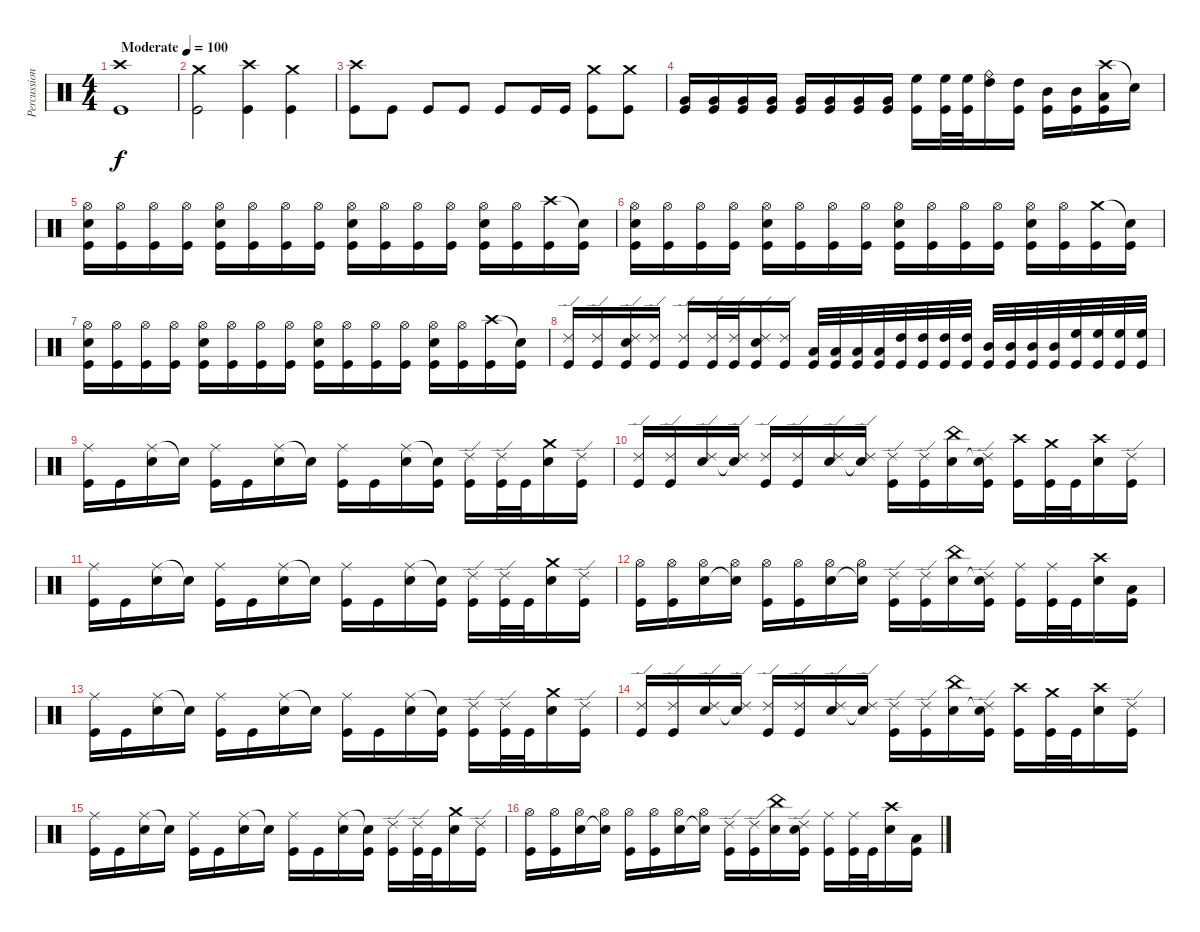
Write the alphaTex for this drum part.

\track ("Percussion" "Percussion") {instrument percussion}
\staff {score}
\articulation defaults
\ts (4 4)
\tempo (100 "Moderate")
\clef neutral
\ks c
("Crash high (hit)" "Kick (hit)").1{dy f} |
("Crash medium (hit)" "Kick (hit)").2 ("Crash high (hit)" "Kick (hit)").4 ("Crash medium (hit)" "Kick (hit)").4 |
("Crash high (hit)" "Kick (hit)").8 "Kick (hit)".8 "Kick (hit)".8 "Kick (hit)".8 "Kick (hit)".8 "Kick (hit)".16 "Kick (hit)".16 ("Crash medium (hit)" "Kick (hit)").8 ("Crash medium (hit)" "Kick (hit)").8 |
("Very Low Tom (hit)" "Kick (hit)").16 ("Very Low Tom (hit)" "Kick (hit)").16 ("Very Low Tom (hit)" "Kick (hit)").16 ("Very Low Tom (hit)" "Kick (hit)").16 ("Very Low Tom (hit)" "Kick (hit)").16 ("Very Low Tom (hit)" "Kick (hit)").16 ("Very Low Tom (hit)" "Kick (hit)").16 ("Very Low Tom (hit)" "Kick (hit)").16 ("High Floor Tom (hit)" "Kick (hit)").16 ("High Floor Tom (hit)" "Kick (hit)").32 ("High Floor Tom (hit)" "Kick (hit)").32 ("High Tom (hit)" "Ride (bell)").16 ("High Tom (hit)" "Kick (hit)").16 ("Mid Tom (hit)" "Kick (hit)").16 ("Mid Tom (hit)" "Kick (hit)").16 ("Crash high (hit)" "Low Floor Tom (hit)" "Kick (hit)").16 "Snare (hit)"{t}.16 |
("Hi-Hat (open)" "Snare (hit) 2" "Kick (hit)").16 ("Hi-Hat (open)" "Kick (hit)").16 ("Hi-Hat (open)" "Kick (hit)").16 ("Hi-Hat (open)" "Kick (hit)").16 ("Hi-Hat (open)" "Snare (hit) 2" "Kick (hit)").16 ("Hi-Hat (open)" "Kick (hit)").16 ("Hi-Hat (open)" "Kick (hit)").16 ("Hi-Hat (open)" "Kick (hit)").16 ("Hi-Hat (open)" "Snare (hit) 2" "Kick (hit)").16 ("Hi-Hat (open)" "Kick (hit)").16 ("Hi-Hat (open)" "Kick (hit)").16 ("Hi-Hat (open)" "Kick (hit)").16 ("Hi-Hat (open)" "Snare (hit) 2" "Kick (hit)").16 ("Hi-Hat (open)" "Kick (hit)").16 ("Crash high (hit)" "Kick (hit)").16 ("Snare (hit)"{t} "Kick (hit)").16 |
("Hi-Hat (open)" "Snare (hit) 2" "Kick (hit)").16 ("Hi-Hat (open)" "Kick (hit)").16 ("Hi-Hat (open)" "Kick (hit)").16 ("Hi-Hat (open)" "Kick (hit)").16 ("Hi-Hat (open)" "Snare (hit) 2" "Kick (hit)").16 ("Hi-Hat (open)" "Kick (hit)").16 ("Hi-Hat (open)" "Kick (hit)").16 ("Hi-Hat (open)" "Kick (hit)").16 ("Hi-Hat (open)" "Snare (hit) 2" "Kick (hit)").16 ("Hi-Hat (open)" "Kick (hit)").16 ("Hi-Hat (open)" "Kick (hit)").16 ("Hi-Hat (open)" "Kick (hit)").16 ("Hi-Hat (open)" "Snare (hit) 2" "Kick (hit)").16 ("Hi-Hat (open)" "Kick (hit)").16 ("Crash medium (hit)" "Kick (hit)").16 ("Snare (hit)"{t} "Kick (hit)").16 |
("Hi-Hat (open)" "Snare (hit) 2" "Kick (hit)").16 ("Hi-Hat (open)" "Kick (hit)").16 ("Hi-Hat (open)" "Kick (hit)").16 ("Hi-Hat (open)" "Kick (hit)").16 ("Hi-Hat (open)" "Snare (hit) 2" "Kick (hit)").16 ("Hi-Hat (open)" "Kick (hit)").16 ("Hi-Hat (open)" "Kick (hit)").16 ("Hi-Hat (open)" "Kick (hit)").16 ("Hi-Hat (open)" "Snare (hit) 2" "Kick (hit)").16 ("Hi-Hat (open)" "Kick (hit)").16 ("Hi-Hat (open)" "Kick (hit)").16 ("Hi-Hat (open)" "Kick (hit)").16 ("Hi-Hat (open)" "Snare (hit) 2" "Kick (hit)").16 ("Hi-Hat (open)" "Kick (hit)").16 ("Crash high (hit)" "Kick (hit)").16 ("Snare (hit)"{t} "Kick (hit)").16 |
("Ride (edge) 2" "Kick (hit)").16 ("Ride (edge) 2" "Kick (hit)").16 ("Ride (edge) 2" "Snare (hit) 2" "Kick (hit)").16 ("Ride (edge) 2" "Kick (hit)").16 ("Ride (edge) 2" "Kick (hit)").16 ("Ride (edge) 2" "Kick (hit)").32 ("Ride (edge) 2" "Kick (hit)").32 ("Ride (edge) 2" "Snare (hit) 2" "Kick (hit)").16 ("Ride (edge) 2" "Kick (hit)").16 ("Low Tom (hit)" "Kick (hit)").32 ("Low Tom (hit)" "Kick (hit)").32 ("Low Tom (hit)" "Kick (hit)").32 ("Low Tom (hit)" "Kick (hit)").32 ("High Tom (hit)" "Kick (hit)").32 ("High Tom (hit)" "Kick (hit)").32 ("High Tom (hit)" "Kick (hit)").32 ("High Tom (hit)" "Kick (hit)").32 ("Mid Tom (hit)" "Kick (hit)").32 ("Mid Tom (hit)" "Kick (hit)").32 ("Mid Tom (hit)" "Kick (hit)").32 ("Mid Tom (hit)" "Kick (hit)").32 ("High Floor Tom (hit)" "Kick (hit)").32 ("High Floor Tom (hit)" "Kick (hit)").32 ("High Floor Tom (hit)" "Kick (hit)").32 ("High Floor Tom (hit)" "Kick (hit)").32 |
("Ride (middle)" "Kick (hit)").16 "Kick (hit)".16 ("Ride (middle)" "Snare (hit) 2").16 "Snare (hit)"{t}.16 ("Ride (middle)" "Kick (hit)").16 "Kick (hit)".16 ("Ride (middle)" "Snare (hit) 2").16 "Snare (hit)"{t}.16 ("Ride (middle)" "Kick (hit)").16 "Kick (hit)".16 ("Ride (middle)" "Snare (hit) 2").16 ("Snare (hit)"{t} "Kick (hit)").16 ("Ride (edge) 2" "Kick (hit)").16 ("Ride (edge) 2" "Kick (hit)").32 "Kick (hit)".32 ("Crash medium (hit)" "Snare (hit) 2").16 ("Ride (edge) 2" "Kick (hit)").16 |
("Ride (edge) 2" "Kick (hit)").16 ("Ride (edge) 2" "Kick (hit)").16 ("Ride (edge) 2" "Snare (hit) 2").16 ("Ride (edge) 2" "Snare (hit)"{t}).16 ("Ride (edge) 2" "Kick (hit)").16 ("Ride (edge) 2" "Kick (hit)").16 ("Ride (edge) 2" "Snare (hit) 2").16 ("Ride (edge) 2" "Snare (hit)"{t}).16 ("Ride (edge) 2" "Kick (hit)").16 ("Ride (edge) 2" "Kick (hit)").16 ("China (hit)" "Snare (hit) 2").16 ("Ride (edge) 2" "Snare (hit)"{t} "Kick (hit)").16 ("Crash high (hit)" "Kick (hit)").16 ("Crash medium (hit)" "Kick (hit)").32 "Kick (hit)".32 ("Crash high (hit)" "Snare (hit) 2").16 ("Ride (edge) 2" "Kick (hit)").16 |
("Ride (middle)" "Kick (hit)").16 "Kick (hit)".16 ("Ride (middle)" "Snare (hit) 2").16 "Snare (hit)"{t}.16 ("Ride (middle)" "Kick (hit)").16 "Kick (hit)".16 ("Ride (middle)" "Snare (hit) 2").16 "Snare (hit)"{t}.16 ("Ride (middle)" "Kick (hit)").16 "Kick (hit)".16 ("Ride (middle)" "Snare (hit) 2").16 ("Snare (hit)"{t} "Kick (hit)").16 ("Ride (edge) 2" "Kick (hit)").16 ("Ride (edge) 2" "Kick (hit)").32 "Kick (hit)".32 ("Crash medium (hit)" "Snare (hit) 2").16 ("Ride (edge) 2" "Kick (hit)").16 |
("Hi-Hat (open)" "Kick (hit)").16 ("Hi-Hat (open)" "Kick (hit)").16 ("Hi-Hat (open)" "Snare (hit) 2").16 ("Hi-Hat (open)" "Snare (hit)"{t}).16 ("Hi-Hat (open)" "Kick (hit)").16 ("Hi-Hat (open)" "Kick (hit)").16 ("Hi-Hat (open)" "Snare (hit) 2").16 ("Hi-Hat (open)" "Snare (hit)"{t}).16 ("Ride (edge) 2" "Kick (hit)").16 ("Ride (edge) 2" "Kick (hit)").16 ("China (hit)" "Snare (hit) 2").16 ("Ride (edge) 2" "Snare (hit)"{t} "Kick (hit)").16 ("Ride (middle)" "Kick (hit)").16 ("Ride (middle)" "Kick (hit)").32 "Kick (hit)".32 ("Crash high (hit)" "Snare (hit) 2").16 ("Low Floor Tom (hit)" "Kick (hit)").16 |
("Ride (middle)" "Kick (hit)").16 "Kick (hit)".16 ("Ride (middle)" "Snare (hit) 2").16 "Snare (hit)"{t}.16 ("Ride (middle)" "Kick (hit)").16 "Kick (hit)".16 ("Ride (middle)" "Snare (hit) 2").16 "Snare (hit)"{t}.16 ("Ride (middle)" "Kick (hit)").16 "Kick (hit)".16 ("Ride (middle)" "Snare (hit) 2").16 ("Snare (hit)"{t} "Kick (hit)").16 ("Ride (edge) 2" "Kick (hit)").16 ("Ride (edge) 2" "Kick (hit)").32 "Kick (hit)".32 ("Crash medium (hit)" "Snare (hit) 2").16 ("Ride (edge) 2" "Kick (hit)").16 |
("Ride (edge) 2" "Kick (hit)").16 ("Ride (edge) 2" "Kick (hit)").16 ("Ride (edge) 2" "Snare (hit) 2").16 ("Ride (edge) 2" "Snare (hit)"{t}).16 ("Ride (edge) 2" "Kick (hit)").16 ("Ride (edge) 2" "Kick (hit)").16 ("Ride (edge) 2" "Snare (hit) 2").16 ("Ride (edge) 2" "Snare (hit)"{t}).16 ("Ride (edge) 2" "Kick (hit)").16 ("Ride (edge) 2" "Kick (hit)").16 ("China (hit)" "Snare (hit) 2").16 ("Ride (edge) 2" "Snare (hit)"{t} "Kick (hit)").16 ("Crash high (hit)" "Kick (hit)").16 ("Crash medium (hit)" "Kick (hit)").32 "Kick (hit)".32 ("Crash high (hit)" "Snare (hit) 2").16 ("Ride (edge) 2" "Kick (hit)").16 |
("Ride (middle)" "Kick (hit)").16 "Kick (hit)".16 ("Ride (middle)" "Snare (hit) 2").16 "Snare (hit)"{t}.16 ("Ride (middle)" "Kick (hit)").16 "Kick (hit)".16 ("Ride (middle)" "Snare (hit) 2").16 "Snare (hit)"{t}.16 ("Ride (middle)" "Kick (hit)").16 "Kick (hit)".16 ("Ride (middle)" "Snare (hit) 2").16 ("Snare (hit)"{t} "Kick (hit)").16 ("Ride (edge) 2" "Kick (hit)").16 ("Ride (edge) 2" "Kick (hit)").32 "Kick (hit)".32 ("Crash medium (hit)" "Snare (hit) 2").16 ("Ride (edge) 2" "Kick (hit)").16 |
("Hi-Hat (open)" "Kick (hit)").16 ("Hi-Hat (open)" "Kick (hit)").16 ("Hi-Hat (open)" "Snare (hit) 2").16 ("Hi-Hat (open)" "Snare (hit)"{t}).16 ("Hi-Hat (open)" "Kick (hit)").16 ("Hi-Hat (open)" "Kick (hit)").16 ("Hi-Hat (open)" "Snare (hit) 2").16 ("Hi-Hat (open)" "Snare (hit)"{t}).16 ("Ride (edge) 2" "Kick (hit)").16 ("Ride (edge) 2" "Kick (hit)").16 ("China (hit)" "Snare (hit) 2").16 ("Ride (edge) 2" "Snare (hit)"{t} "Kick (hit)").16 ("Ride (middle)" "Kick (hit)").16 ("Ride (middle)" "Kick (hit)").32 "Kick (hit)".32 ("Crash high (hit)" "Snare (hit) 2").16 ("Low Floor Tom (hit)" "Kick (hit)").16
